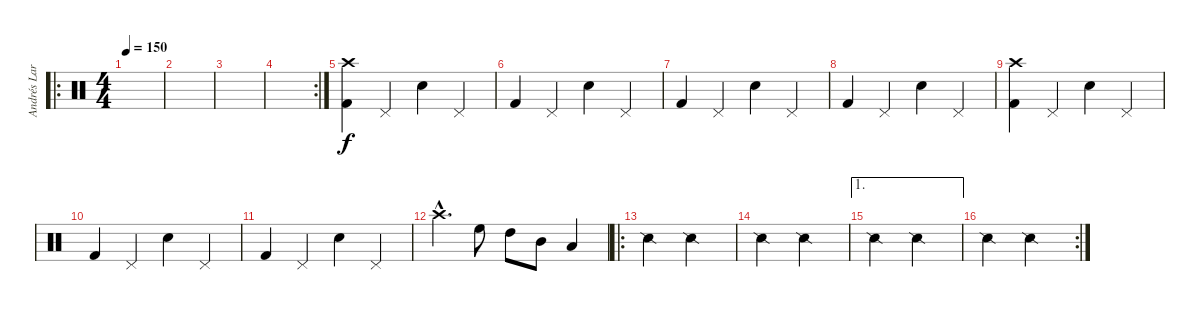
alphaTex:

\track ("Andrés Larraín (batería)" "Andrés Lar") {instrument percussion}
\staff {score}
\articulation defaults
\ro
\ts (4 4)
\tempo 150
\clef neutral
\ks c
|
|
|
\rc 2
|
("Crash high (hit)" "Kick (hit) 2").4 "Pedal Hi-Hat (hit)".4 "Electric Snare (hit)".4 "Pedal Hi-Hat (hit)".4 |
"Kick (hit) 2".4 "Pedal Hi-Hat (hit)".4 "Electric Snare (hit)".4 "Pedal Hi-Hat (hit)".4 |
"Kick (hit) 2".4 "Pedal Hi-Hat (hit)".4 "Electric Snare (hit)".4 "Pedal Hi-Hat (hit)".4 |
"Kick (hit) 2".4 "Pedal Hi-Hat (hit)".4 "Electric Snare (hit)".4 "Pedal Hi-Hat (hit)".4 |
("Crash high (hit)" "Kick (hit) 2").4 "Pedal Hi-Hat (hit)".4 "Electric Snare (hit)".4 "Pedal Hi-Hat (hit)".4 |
"Kick (hit) 2".4 "Pedal Hi-Hat (hit)".4 "Electric Snare (hit)".4 "Pedal Hi-Hat (hit)".4 |
"Kick (hit) 2".4 "Pedal Hi-Hat (hit)".4 "Electric Snare (hit)".4 "Pedal Hi-Hat (hit)".4 |
"Crash high (hit)"{hac}.4{d} "High Floor Tom (hit)".8 "High Tom (hit)".8 "Mid Tom (hit)".8 "Low Tom (hit)".4 |
\ro "Snare (side stick) 2".2 "Snare (side stick) 2".2
|
"Snare (side stick) 2".2 "Snare (side stick) 2".2 |
\ae 1 "Snare (side stick) 2".2 "Snare (side stick) 2".2
|
\rc 2 "Snare (side stick) 2".2 "Snare (side stick) 2".2
